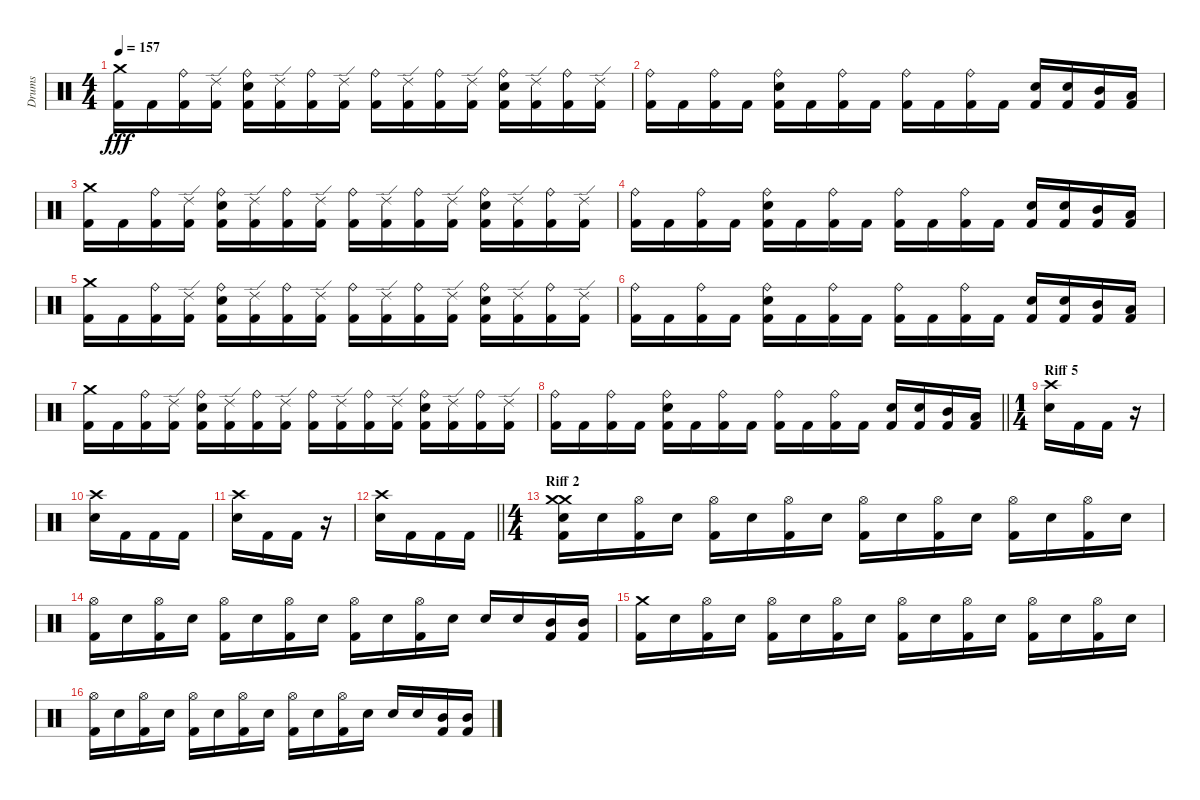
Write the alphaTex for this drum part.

\track ("Drums" "Drums") {instrument percussion}
\staff {score}
\articulation defaults
\ts (4 4)
\tempo 157
\clef neutral
\ks c
("Kick (hit) 2" "Crash medium (hit)").16{dy fff} "Kick (hit) 2".16 ("Kick (hit) 2" "Ride (bell)").16 ("Kick (hit) 2" "Ride (edge) 2").16 ("Kick (hit) 2" "Snare (hit) 2" "Ride (bell)").16 ("Kick (hit) 2" "Ride (edge) 2").16 ("Kick (hit) 2" "Ride (bell)").16 ("Kick (hit) 2" "Ride (edge) 2").16 ("Kick (hit) 2" "Ride (bell)").16 ("Kick (hit) 2" "Ride (edge) 2").16 ("Kick (hit) 2" "Ride (bell)").16 ("Kick (hit) 2" "Ride (edge) 2").16 ("Kick (hit) 2" "Snare (hit) 2" "Ride (bell)").16 ("Kick (hit) 2" "Ride (edge) 2").16 ("Kick (hit) 2" "Ride (bell)").16 ("Kick (hit) 2" "Ride (edge) 2").16 |
("Kick (hit) 2" "Ride (bell)").16 "Kick (hit) 2".16 ("Kick (hit) 2" "Ride (bell)").16 "Kick (hit) 2".16 ("Kick (hit) 2" "Snare (hit) 2" "Ride (bell)").16 "Kick (hit) 2".16 ("Kick (hit) 2" "Ride (bell)").16 "Kick (hit) 2".16 ("Kick (hit) 2" "Ride (bell)").16 "Kick (hit) 2".16 ("Kick (hit) 2" "Ride (bell)").16 "Kick (hit) 2".16 ("Kick (hit) 2" "Snare (hit) 2").16 ("Kick (hit) 2" "Snare (hit) 2").16 ("Kick (hit) 2" "Mid Tom (hit)").16 ("Kick (hit) 2" "Low Tom (hit)").16 |
("Kick (hit) 2" "Crash medium (hit)").16 "Kick (hit) 2".16 ("Kick (hit) 2" "Ride (bell)").16 ("Kick (hit) 2" "Ride (edge) 2").16 ("Kick (hit) 2" "Snare (hit) 2" "Ride (bell)").16 ("Kick (hit) 2" "Ride (edge) 2").16 ("Kick (hit) 2" "Ride (bell)").16 ("Kick (hit) 2" "Ride (edge) 2").16 ("Kick (hit) 2" "Ride (bell)").16 ("Kick (hit) 2" "Ride (edge) 2").16 ("Kick (hit) 2" "Ride (bell)").16 ("Kick (hit) 2" "Ride (edge) 2").16 ("Kick (hit) 2" "Snare (hit) 2" "Ride (bell)").16 ("Kick (hit) 2" "Ride (edge) 2").16 ("Kick (hit) 2" "Ride (bell)").16 ("Kick (hit) 2" "Ride (edge) 2").16 |
("Kick (hit) 2" "Ride (bell)").16 "Kick (hit) 2".16 ("Kick (hit) 2" "Ride (bell)").16 "Kick (hit) 2".16 ("Kick (hit) 2" "Snare (hit) 2" "Ride (bell)").16 "Kick (hit) 2".16 ("Kick (hit) 2" "Ride (bell)").16 "Kick (hit) 2".16 ("Kick (hit) 2" "Ride (bell)").16 "Kick (hit) 2".16 ("Kick (hit) 2" "Ride (bell)").16 "Kick (hit) 2".16 ("Kick (hit) 2" "Snare (hit) 2").16 ("Kick (hit) 2" "Snare (hit) 2").16 ("Kick (hit) 2" "Mid Tom (hit)").16 ("Kick (hit) 2" "Low Tom (hit)").16 |
("Kick (hit) 2" "Crash medium (hit)").16 "Kick (hit) 2".16 ("Kick (hit) 2" "Ride (bell)").16 ("Kick (hit) 2" "Ride (edge) 2").16 ("Kick (hit) 2" "Snare (hit) 2" "Ride (bell)").16 ("Kick (hit) 2" "Ride (edge) 2").16 ("Kick (hit) 2" "Ride (bell)").16 ("Kick (hit) 2" "Ride (edge) 2").16 ("Kick (hit) 2" "Ride (bell)").16 ("Kick (hit) 2" "Ride (edge) 2").16 ("Kick (hit) 2" "Ride (bell)").16 ("Kick (hit) 2" "Ride (edge) 2").16 ("Kick (hit) 2" "Snare (hit) 2" "Ride (bell)").16 ("Kick (hit) 2" "Ride (edge) 2").16 ("Kick (hit) 2" "Ride (bell)").16 ("Kick (hit) 2" "Ride (edge) 2").16 |
("Kick (hit) 2" "Ride (bell)").16 "Kick (hit) 2".16 ("Kick (hit) 2" "Ride (bell)").16 "Kick (hit) 2".16 ("Kick (hit) 2" "Snare (hit) 2" "Ride (bell)").16 "Kick (hit) 2".16 ("Kick (hit) 2" "Ride (bell)").16 "Kick (hit) 2".16 ("Kick (hit) 2" "Ride (bell)").16 "Kick (hit) 2".16 ("Kick (hit) 2" "Ride (bell)").16 "Kick (hit) 2".16 ("Kick (hit) 2" "Snare (hit) 2").16 ("Kick (hit) 2" "Snare (hit) 2").16 ("Kick (hit) 2" "Mid Tom (hit)").16 ("Kick (hit) 2" "Low Tom (hit)").16 |
("Kick (hit) 2" "Crash medium (hit)").16 "Kick (hit) 2".16 ("Kick (hit) 2" "Ride (bell)").16 ("Kick (hit) 2" "Ride (edge) 2").16 ("Kick (hit) 2" "Snare (hit) 2" "Ride (bell)").16 ("Kick (hit) 2" "Ride (edge) 2").16 ("Kick (hit) 2" "Ride (bell)").16 ("Kick (hit) 2" "Ride (edge) 2").16 ("Kick (hit) 2" "Ride (bell)").16 ("Kick (hit) 2" "Ride (edge) 2").16 ("Kick (hit) 2" "Ride (bell)").16 ("Kick (hit) 2" "Ride (edge) 2").16 ("Kick (hit) 2" "Snare (hit) 2" "Ride (bell)").16 ("Kick (hit) 2" "Ride (edge) 2").16 ("Kick (hit) 2" "Ride (bell)").16 ("Kick (hit) 2" "Ride (edge) 2").16 |
\barLineRight lightlight
("Kick (hit) 2" "Ride (bell)").16 "Kick (hit) 2".16 ("Kick (hit) 2" "Ride (bell)").16 "Kick (hit) 2".16 ("Kick (hit) 2" "Snare (hit) 2" "Ride (bell)").16 "Kick (hit) 2".16 ("Kick (hit) 2" "Ride (bell)").16 "Kick (hit) 2".16 ("Kick (hit) 2" "Ride (bell)").16 "Kick (hit) 2".16 ("Kick (hit) 2" "Ride (bell)").16 "Kick (hit) 2".16 ("Kick (hit) 2" "Snare (hit) 2").16 ("Kick (hit) 2" "Snare (hit) 2").16 ("Kick (hit) 2" "Mid Tom (hit)").16 ("Kick (hit) 2" "Low Tom (hit)").16 |
\ts (1 4)
\section ("" "Riff 5")
("Snare (hit) 2" "Crash high (hit)").16 "Kick (hit) 2".16 "Kick (hit) 2".16 r.16 |
("Snare (hit) 2" "Crash high (hit)").16 "Kick (hit) 2".16 "Kick (hit) 2".16 "Kick (hit) 2".16 |
("Snare (hit) 2" "Crash high (hit)").16 "Kick (hit) 2".16 "Kick (hit) 2".16 r.16 |
\barLineRight lightlight
("Snare (hit) 2" "Crash high (hit)").16 "Kick (hit) 2".16 "Kick (hit) 2".16 "Kick (hit) 2".16 |
\ts (4 4)
\section ("" "Riff 2")
("Snare (hit) 2" "Crash medium (hit)" "Kick (hit) 2" "Crash medium (hit)").16 "Snare (hit) 2".16 ("Kick (hit) 2" "Hi-Hat (open)").16 "Snare (hit) 2".16 ("Kick (hit) 2" "Hi-Hat (open)").16 "Snare (hit) 2".16 ("Kick (hit) 2" "Hi-Hat (open)").16 "Snare (hit) 2".16 ("Kick (hit) 2" "Hi-Hat (open)").16 "Snare (hit) 2".16 ("Kick (hit) 2" "Hi-Hat (open)").16 "Snare (hit) 2".16 ("Kick (hit) 2" "Hi-Hat (open)").16 "Snare (hit) 2".16 ("Kick (hit) 2" "Hi-Hat (open)").16 "Snare (hit) 2".16 |
("Kick (hit) 2" "Hi-Hat (open)").16 "Snare (hit) 2".16 ("Kick (hit) 2" "Hi-Hat (open)").16 "Snare (hit) 2".16 ("Kick (hit) 2" "Hi-Hat (open)").16 "Snare (hit) 2".16 ("Kick (hit) 2" "Hi-Hat (open)").16 "Snare (hit) 2".16 ("Kick (hit) 2" "Hi-Hat (open)").16 "Snare (hit) 2".16 ("Kick (hit) 2" "Hi-Hat (open)").16 "Snare (hit) 2".16 "Snare (hit) 2".16 "Snare (hit) 2".16 ("Kick (hit) 2" "Mid Tom (hit)").16 ("Kick (hit) 2" "Mid Tom (hit)").16 |
("Kick (hit) 2" "Crash medium (hit)").16 "Snare (hit) 2".16 ("Kick (hit) 2" "Hi-Hat (open)").16 "Snare (hit) 2".16 ("Kick (hit) 2" "Hi-Hat (open)").16 "Snare (hit) 2".16 ("Kick (hit) 2" "Hi-Hat (open)").16 "Snare (hit) 2".16 ("Kick (hit) 2" "Hi-Hat (open)").16 "Snare (hit) 2".16 ("Kick (hit) 2" "Hi-Hat (open)").16 "Snare (hit) 2".16 ("Kick (hit) 2" "Hi-Hat (open)").16 "Snare (hit) 2".16 ("Kick (hit) 2" "Hi-Hat (open)").16 "Snare (hit) 2".16 |
("Kick (hit) 2" "Hi-Hat (open)").16 "Snare (hit) 2".16 ("Kick (hit) 2" "Hi-Hat (open)").16 "Snare (hit) 2".16 ("Kick (hit) 2" "Hi-Hat (open)").16 "Snare (hit) 2".16 ("Kick (hit) 2" "Hi-Hat (open)").16 "Snare (hit) 2".16 ("Kick (hit) 2" "Hi-Hat (open)").16 "Snare (hit) 2".16 ("Kick (hit) 2" "Hi-Hat (open)").16 "Snare (hit) 2".16 "Snare (hit) 2".16 "Snare (hit) 2".16 ("Kick (hit) 2" "Mid Tom (hit)").16 ("Kick (hit) 2" "Mid Tom (hit)").16
